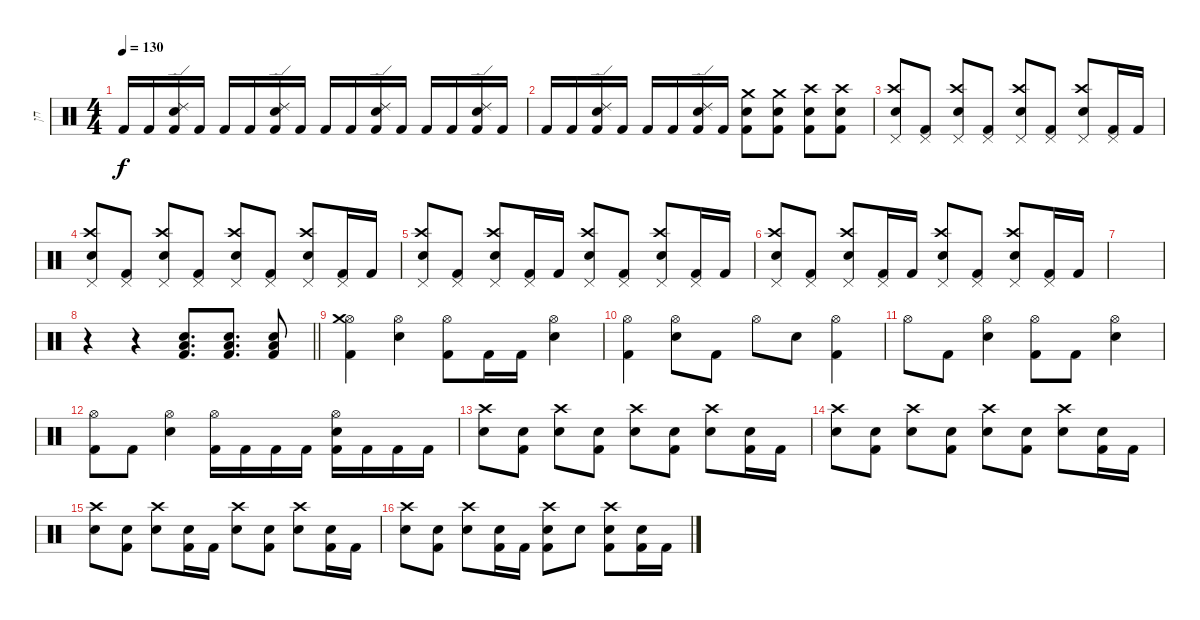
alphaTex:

\track ("חן" "חן") {instrument percussion}
\staff {score}
\articulation defaults
\ts (4 4)
\tempo 130
\clef neutral
\ks c "Kick (hit) 2".16{dy f} "Kick (hit) 2".16
("Ride (edge) 2" "Electric Snare (hit)" "Kick (hit) 2").16 "Kick (hit) 2".16 "Kick (hit) 2".16 "Kick (hit) 2".16 ("Ride (edge) 2" "Electric Snare (hit)" "Kick (hit) 2").16 "Kick (hit) 2".16 "Kick (hit) 2".16 "Kick (hit) 2".16 ("Ride (edge) 2" "Electric Snare (hit)" "Kick (hit) 2").16 "Kick (hit) 2".16 "Kick (hit) 2".16 "Kick (hit) 2".16 ("Ride (edge) 2" "Electric Snare (hit)" "Kick (hit) 2").16 "Kick (hit) 2".16 |
"Kick (hit) 2".16 "Kick (hit) 2".16 ("Ride (edge) 2" "Electric Snare (hit)" "Kick (hit) 2").16 "Kick (hit) 2".16 "Kick (hit) 2".16 "Kick (hit) 2".16 ("Ride (edge) 2" "Electric Snare (hit)" "Kick (hit) 2").16 "Kick (hit) 2".16 ("Crash medium (hit)" "Electric Snare (hit)" "Kick (hit) 2").8 ("Crash medium (hit)" "Electric Snare (hit)" "Kick (hit) 2").8 ("Crash high (hit)" "Electric Snare (hit)" "Kick (hit) 2").8 ("Crash high (hit)" "Electric Snare (hit)" "Kick (hit) 2").8 |
("Crash high (hit)" "Electric Snare (hit)" "Pedal Hi-Hat (hit)").8 ("Pedal Hi-Hat (hit)" "Kick (hit) 2").8 ("Crash high (hit)" "Electric Snare (hit)" "Pedal Hi-Hat (hit)").8 ("Pedal Hi-Hat (hit)" "Kick (hit) 2").8 ("Crash high (hit)" "Electric Snare (hit)" "Pedal Hi-Hat (hit)").8 ("Pedal Hi-Hat (hit)" "Kick (hit) 2").8 ("Crash high (hit)" "Electric Snare (hit)" "Pedal Hi-Hat (hit)").8 ("Pedal Hi-Hat (hit)" "Kick (hit) 2").16 "Kick (hit) 2".16 |
("Crash high (hit)" "Electric Snare (hit)" "Pedal Hi-Hat (hit)").8 ("Pedal Hi-Hat (hit)" "Kick (hit) 2").8 ("Crash high (hit)" "Electric Snare (hit)" "Pedal Hi-Hat (hit)").8 ("Pedal Hi-Hat (hit)" "Kick (hit) 2").8 ("Crash high (hit)" "Electric Snare (hit)" "Pedal Hi-Hat (hit)").8 ("Pedal Hi-Hat (hit)" "Kick (hit) 2").8 ("Crash high (hit)" "Electric Snare (hit)" "Pedal Hi-Hat (hit)").8 ("Pedal Hi-Hat (hit)" "Kick (hit) 2").16 "Kick (hit) 2".16 |
("Crash high (hit)" "Electric Snare (hit)" "Pedal Hi-Hat (hit)").8 ("Pedal Hi-Hat (hit)" "Kick (hit) 2").8 ("Crash high (hit)" "Electric Snare (hit)" "Pedal Hi-Hat (hit)").8 ("Pedal Hi-Hat (hit)" "Kick (hit) 2").16 "Kick (hit) 2".16 ("Crash high (hit)" "Electric Snare (hit)" "Pedal Hi-Hat (hit)").8 ("Pedal Hi-Hat (hit)" "Kick (hit) 2").8 ("Crash high (hit)" "Electric Snare (hit)" "Pedal Hi-Hat (hit)").8 ("Pedal Hi-Hat (hit)" "Kick (hit) 2").16 "Kick (hit) 2".16 |
("Crash high (hit)" "Electric Snare (hit)" "Pedal Hi-Hat (hit)").8 ("Pedal Hi-Hat (hit)" "Kick (hit) 2").8 ("Crash high (hit)" "Electric Snare (hit)" "Pedal Hi-Hat (hit)").8 ("Pedal Hi-Hat (hit)" "Kick (hit) 2").16 "Kick (hit) 2".16 ("Crash high (hit)" "Electric Snare (hit)" "Pedal Hi-Hat (hit)").8 ("Pedal Hi-Hat (hit)" "Kick (hit) 2").8 ("Crash high (hit)" "Electric Snare (hit)" "Pedal Hi-Hat (hit)").8 ("Pedal Hi-Hat (hit)" "Kick (hit) 2").16 "Kick (hit) 2".16 |
|
\barLineRight lightlight
r.4 r.4 ("Electric Snare (hit)" "Low Floor Tom (hit)" "Kick (hit) 2").8{d} ("Electric Snare (hit)" "Low Floor Tom (hit)" "Kick (hit) 2").8{d} ("Electric Snare (hit)" "Low Floor Tom (hit)" "Kick (hit) 2").8 |
("Hi-Hat (open)" "Crash medium (hit)" "Kick (hit) 2").4 ("Hi-Hat (open)" "Electric Snare (hit)").4 ("Hi-Hat (open)" "Kick (hit) 2").8 "Kick (hit) 2".16 "Kick (hit) 2".16 ("Hi-Hat (open)" "Electric Snare (hit)").4 |
("Hi-Hat (open)" "Kick (hit) 2").4 ("Hi-Hat (open)" "Electric Snare (hit)").8 "Kick (hit) 2".8 "Hi-Hat (open)".8 "Electric Snare (hit)".8 ("Hi-Hat (open)" "Kick (hit) 2").4 |
"Hi-Hat (open)".8 "Kick (hit) 2".8 ("Hi-Hat (open)" "Electric Snare (hit)").4 ("Hi-Hat (open)" "Kick (hit) 2").8 "Kick (hit) 2".8 ("Hi-Hat (open)" "Electric Snare (hit)").4 |
("Hi-Hat (open)" "Kick (hit) 2").8 "Kick (hit) 2".8 ("Hi-Hat (open)" "Electric Snare (hit)").4 ("Hi-Hat (open)" "Kick (hit) 2").16 "Kick (hit) 2".16 "Kick (hit) 2".16 "Kick (hit) 2".16 ("Hi-Hat (open)" "Electric Snare (hit)" "Kick (hit) 2").16 "Kick (hit) 2".16 "Kick (hit) 2".16 "Kick (hit) 2".16 |
("Crash high (hit)" "Electric Snare (hit)").8 ("Electric Snare (hit)" "Kick (hit) 2").8 ("Crash high (hit)" "Electric Snare (hit)").8 ("Electric Snare (hit)" "Kick (hit) 2").8 ("Crash high (hit)" "Electric Snare (hit)").8 ("Electric Snare (hit)" "Kick (hit) 2").8 ("Crash high (hit)" "Electric Snare (hit)").8 ("Electric Snare (hit)" "Kick (hit) 2").16 "Kick (hit) 2".16 |
("Crash high (hit)" "Electric Snare (hit)").8 ("Electric Snare (hit)" "Kick (hit) 2").8 ("Crash high (hit)" "Electric Snare (hit)").8 ("Electric Snare (hit)" "Kick (hit) 2").8 ("Crash high (hit)" "Electric Snare (hit)").8 ("Electric Snare (hit)" "Kick (hit) 2").8 ("Crash high (hit)" "Electric Snare (hit)").8 ("Electric Snare (hit)" "Kick (hit) 2").16 "Kick (hit) 2".16 |
("Crash high (hit)" "Electric Snare (hit)").8 ("Electric Snare (hit)" "Kick (hit) 2").8 ("Crash high (hit)" "Electric Snare (hit)").8 ("Electric Snare (hit)" "Kick (hit) 2").16 "Kick (hit) 2".16 ("Crash high (hit)" "Electric Snare (hit)").8 ("Electric Snare (hit)" "Kick (hit) 2").8 ("Crash high (hit)" "Electric Snare (hit)").8 ("Electric Snare (hit)" "Kick (hit) 2").16 "Kick (hit) 2".16 |
("Crash high (hit)" "Electric Snare (hit)").8 ("Electric Snare (hit)" "Kick (hit) 2").8 ("Crash high (hit)" "Electric Snare (hit)").8 ("Electric Snare (hit)" "Kick (hit) 2").16 "Kick (hit) 2".16 ("Crash high (hit)" "Electric Snare (hit)" "Kick (hit) 2").8 "Electric Snare (hit)".8 ("Crash high (hit)" "Electric Snare (hit)" "Kick (hit) 2").8 ("Electric Snare (hit)" "Kick (hit) 2").16 "Kick (hit) 2".16
